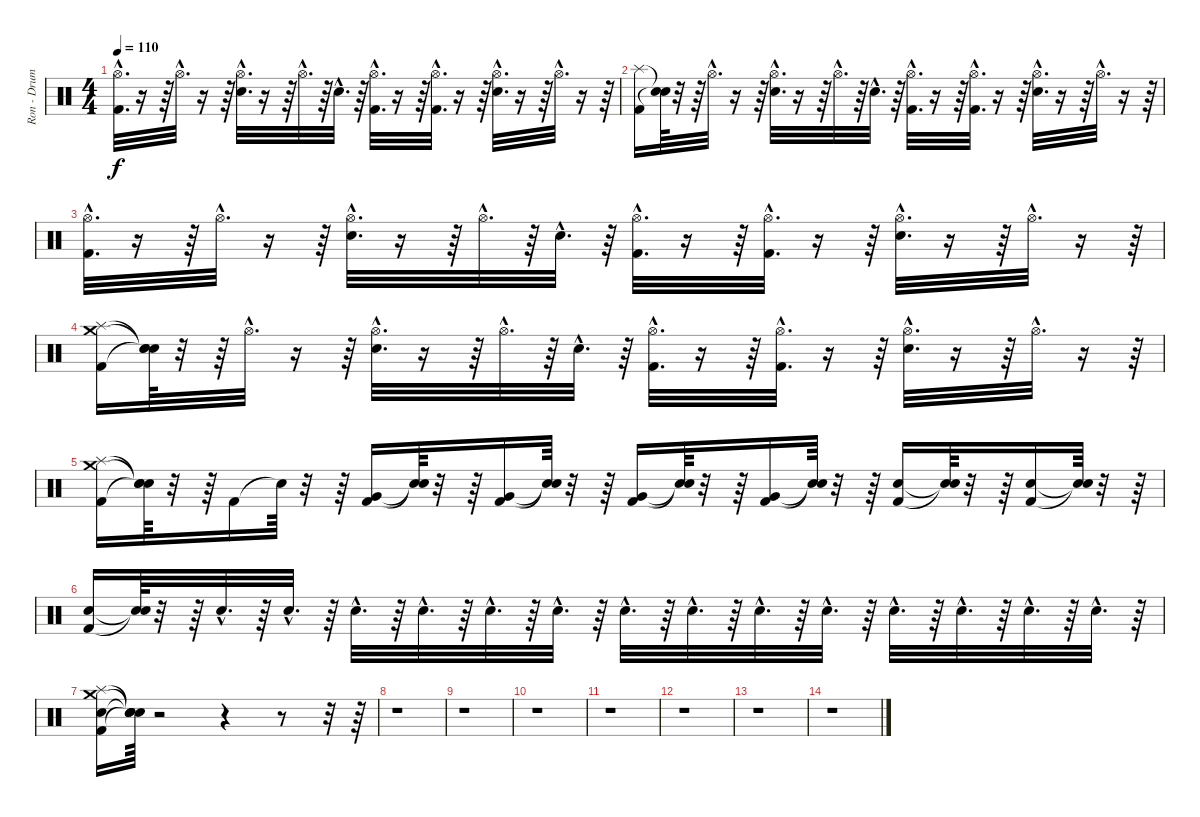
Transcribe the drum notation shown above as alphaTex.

\track ("Ron - Drums" "Ron - Drum") {instrument percussion}
\staff {score}
\articulation defaults
\ts (4 4)
\tempo 110
\clef neutral
\ks c
("Hi-Hat (open)"{hac} "Kick (hit) 2"{hac}).32{d dy f} r.16 r.64 "Hi-Hat (open)"{hac}.32{d} r.16 r.64 ("Hi-Hat (open)"{hac} "Electric Snare (hit)"{hac}).32{d} r.16 r.64 "Hi-Hat (open)"{hac}.32{d} r.64 "Electric Snare (hit)"{hac}.32{d} r.64 ("Hi-Hat (open)"{hac} "Kick (hit) 2"{hac}).32{d} r.16 r.64 ("Hi-Hat (open)"{hac} "Kick (hit) 2"{hac}).32{d} r.16 r.64 ("Hi-Hat (open)"{hac} "Electric Snare (hit)"{hac}).32{d} r.16 r.64 "Hi-Hat (open)"{hac}.32{d} r.16 r.64 |
("Splash (hit)" "Kick (hit) 2").16 ("Snare (hit)"{t} "Snare (hit)"{t}).64 r.32 r.64 "Hi-Hat (open)"{hac}.32{d} r.16 r.64 ("Hi-Hat (open)"{hac} "Electric Snare (hit)"{hac}).32{d} r.16 r.64 "Hi-Hat (open)"{hac}.32{d} r.64 "Electric Snare (hit)"{hac}.32{d} r.64 ("Hi-Hat (open)"{hac} "Kick (hit) 2"{hac}).32{d} r.16 r.64 ("Hi-Hat (open)"{hac} "Kick (hit) 2"{hac}).32{d} r.16 r.64 ("Hi-Hat (open)"{hac} "Electric Snare (hit)"{hac}).32{d} r.16 r.64 "Hi-Hat (open)"{hac}.32{d} r.16 r.64 |
("Hi-Hat (open)"{hac} "Kick (hit) 2"{hac}).32{d} r.16 r.64 "Hi-Hat (open)"{hac}.32{d} r.16 r.64 ("Hi-Hat (open)"{hac} "Electric Snare (hit)"{hac}).32{d} r.16 r.64 "Hi-Hat (open)"{hac}.32{d} r.64 "Electric Snare (hit)"{hac}.32{d} r.64 ("Hi-Hat (open)"{hac} "Kick (hit) 2"{hac}).32{d} r.16 r.64 ("Hi-Hat (open)"{hac} "Kick (hit) 2"{hac}).32{d} r.16 r.64 ("Hi-Hat (open)"{hac} "Electric Snare (hit)"{hac}).32{d} r.16 r.64 "Hi-Hat (open)"{hac}.32{d} r.16 r.64 |
("Crash medium (hit)" "Splash (hit)" "Kick (hit) 2").16 ("Snare (hit)"{t} "Snare (hit)"{t} "Snare (hit)"{t}).64 r.32 r.64 "Hi-Hat (open)"{hac}.32{d} r.16 r.64 ("Hi-Hat (open)"{hac} "Electric Snare (hit)"{hac}).32{d} r.16 r.64 "Hi-Hat (open)"{hac}.32{d} r.64 "Electric Snare (hit)"{hac}.32{d} r.64 ("Hi-Hat (open)"{hac} "Kick (hit) 2"{hac}).32{d} r.16 r.64 ("Hi-Hat (open)"{hac} "Kick (hit) 2"{hac}).32{d} r.16 r.64 ("Hi-Hat (open)"{hac} "Electric Snare (hit)"{hac}).32{d} r.16 r.64 "Hi-Hat (open)"{hac}.32{d} r.16 r.64 |
("Kick (hit) 2" "Crash medium (hit)" "Splash (hit)").16 ("Snare (hit)"{t} "Snare (hit)"{t} "Snare (hit)"{t}).64 r.32 r.64 "Kick (hit) 2".16 "Snare (hit)"{t}.64 r.32 r.64 ("Kick (hit) 2" "Very Low Tom (hit)").16 ("Snare (hit)"{t} "Snare (hit)"{t}).64 r.32 r.64 ("Kick (hit) 2" "Very Low Tom (hit)").16 ("Snare (hit)"{t} "Snare (hit)"{t}).64 r.32 r.64 ("Kick (hit) 2" "Very Low Tom (hit)").16 ("Snare (hit)"{t} "Snare (hit)"{t}).64 r.32 r.64 ("Very Low Tom (hit)" "Kick (hit) 2").16 ("Snare (hit)"{t} "Snare (hit)"{t}).64 r.32 r.64 ("Electric Snare (hit)" "Kick (hit) 2").16 ("Snare (hit)"{t} "Snare (hit)"{t}).64 r.32 r.64 ("Electric Snare (hit)" "Kick (hit) 2").16 ("Snare (hit)"{t} "Snare (hit)"{t}).64 r.32 r.64 |
("Kick (hit) 2" "Electric Snare (hit)").16 ("Snare (hit)"{t} "Snare (hit)"{t}).64 r.32 r.64 "Electric Snare (hit)"{hac}.32{d} r.64 "Electric Snare (hit)"{hac}.32{d} r.64 "Electric Snare (hit)"{hac}.32{d} r.64 "Electric Snare (hit)"{hac}.32{d} r.64 "Electric Snare (hit)"{hac}.32{d} r.64 "Electric Snare (hit)"{hac}.32{d} r.64 "Electric Snare (hit)"{hac}.32{d} r.64 "Electric Snare (hit)"{hac}.32{d} r.64 "Electric Snare (hit)"{hac}.32{d} r.64 "Electric Snare (hit)"{hac}.32{d} r.64 "Electric Snare (hit)"{hac}.32{d} r.64 "Electric Snare (hit)"{hac}.32{d} r.64 "Electric Snare (hit)"{hac}.32{d} r.64 "Electric Snare (hit)"{hac}.32{d} r.64 |
("Kick (hit) 2" "Splash (hit)" "Crash medium (hit)" "Electric Snare (hit)").16 ("Snare (hit)"{t} "Snare (hit)"{t} "Snare (hit)"{t} "Snare (hit)"{t}).64 r.2 r.4 r.8 r.32 r.64 |
r.1 |
r.1 |
r.1 |
r.1 |
r.1 |
r.1 |
r.1
